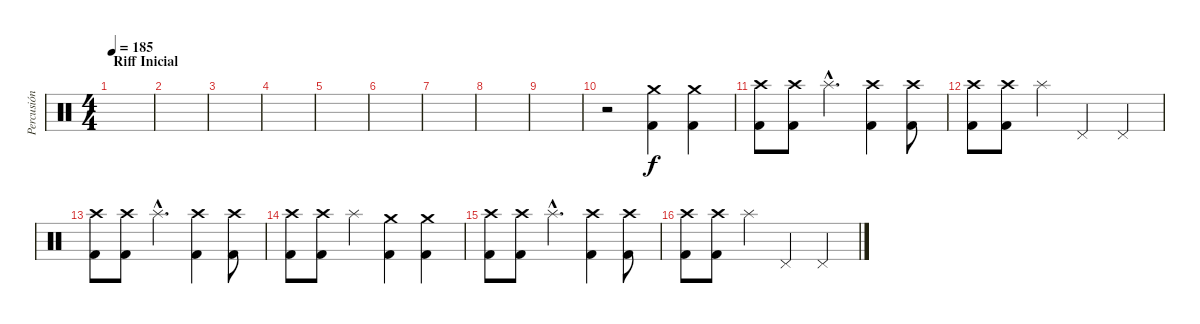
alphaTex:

\track ("Percusión" "Percusión") {instrument percussion}
\staff {score}
\articulation defaults
\ts (4 4)
\section ("" "Riff Inicial")
\tempo 185
\clef neutral
\ks c
|
|
|
|
|
|
|
|
|
r.2 ("Crash medium (hit)" "Kick (hit) 2").4 ("Crash medium (hit)" "Kick (hit) 2").4 |
("Crash high (hit)" "Kick (hit) 2").8 ("Crash high (hit)" "Kick (hit) 2").8 "Splash (hit)"{hac}.4{d} ("Crash high (hit)" "Kick (hit) 2").4 ("Crash high (hit)" "Kick (hit) 2").8 |
("Crash high (hit)" "Kick (hit) 2").8 ("Crash high (hit)" "Kick (hit) 2").8 "Splash (hit)".4 "Pedal Hi-Hat (hit)".4 "Pedal Hi-Hat (hit)".4 |
("Crash high (hit)" "Kick (hit) 2").8 ("Crash high (hit)" "Kick (hit) 2").8 "Splash (hit)"{hac}.4{d} ("Crash high (hit)" "Kick (hit) 2").4 ("Crash high (hit)" "Kick (hit) 2").8 |
("Crash high (hit)" "Kick (hit) 2").8 ("Crash high (hit)" "Kick (hit) 2").8 "Splash (hit)".4 ("Crash medium (hit)" "Kick (hit) 2").4 ("Crash medium (hit)" "Kick (hit) 2").4 |
("Crash high (hit)" "Kick (hit) 2").8 ("Crash high (hit)" "Kick (hit) 2").8 "Splash (hit)"{hac}.4{d} ("Crash high (hit)" "Kick (hit) 2").4 ("Crash high (hit)" "Kick (hit) 2").8 |
("Crash high (hit)" "Kick (hit) 2").8 ("Crash high (hit)" "Kick (hit) 2").8 "Splash (hit)".4 "Pedal Hi-Hat (hit)".4 "Pedal Hi-Hat (hit)".4
